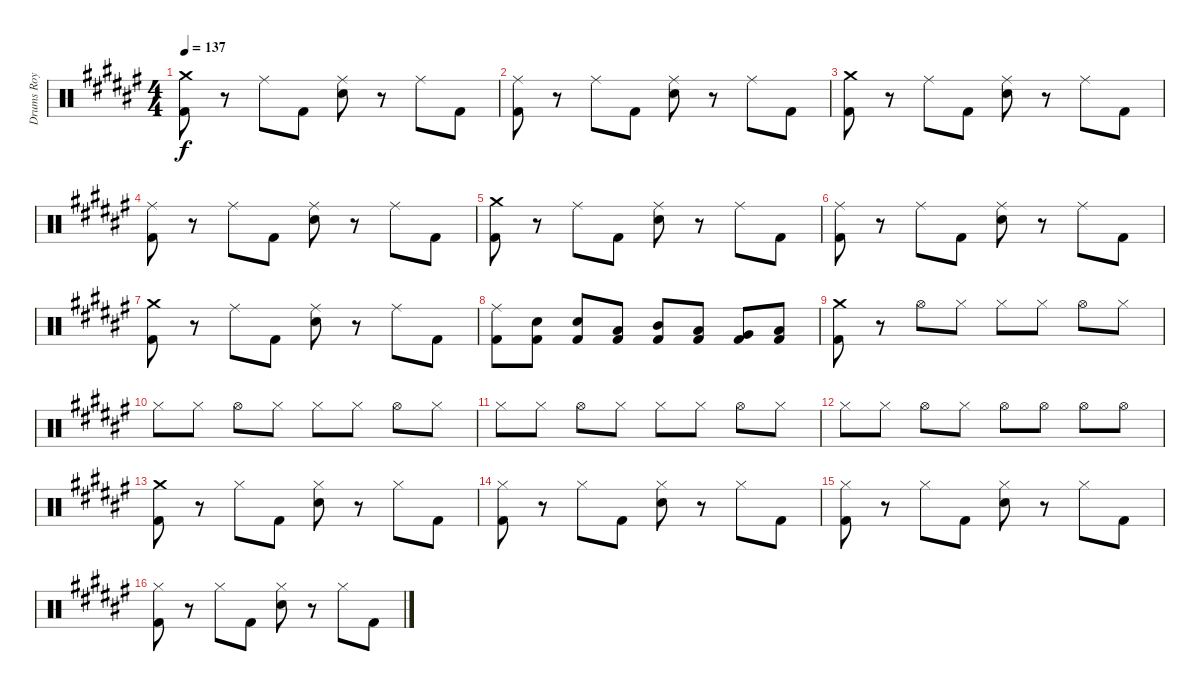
\track ("Drums Roy mayorga" "Drums Roy ") {instrument percussion}
\staff {score}
\articulation defaults
\ts (4 4)
\tempo 137
\clef neutral
\ks d#minor
("Crash medium (hit)" "Kick (hit) 2").8{dy f} r.8 "Ride (middle)".8 "Kick (hit) 2".8 ("Ride (middle)" "Electric Snare (hit)").8 r.8 "Ride (middle)".8 "Kick (hit) 2".8 |
("Ride (middle)" "Kick (hit) 2").8 r.8 "Ride (middle)".8 "Kick (hit) 2".8 ("Ride (middle)" "Electric Snare (hit)").8 r.8 "Ride (middle)".8 "Kick (hit) 2".8 |
("Crash medium (hit)" "Kick (hit) 2").8 r.8 "Ride (middle)".8 "Kick (hit) 2".8 ("Ride (middle)" "Electric Snare (hit)").8 r.8 "Ride (middle)".8 "Kick (hit) 2".8 |
("Ride (middle)" "Kick (hit) 2").8 r.8 "Ride (middle)".8 "Kick (hit) 2".8 ("Ride (middle)" "Electric Snare (hit)").8 r.8 "Ride (middle)".8 "Kick (hit) 2".8 |
("Crash medium (hit)" "Kick (hit) 2").8 r.8 "Ride (middle)".8 "Kick (hit) 2".8 ("Ride (middle)" "Electric Snare (hit)").8 r.8 "Ride (middle)".8 "Kick (hit) 2".8 |
("Ride (middle)" "Kick (hit) 2").8 r.8 "Ride (middle)".8 "Kick (hit) 2".8 ("Ride (middle)" "Electric Snare (hit)").8 r.8 "Ride (middle)".8 "Kick (hit) 2".8 |
("Crash medium (hit)" "Kick (hit) 2").8 r.8 "Ride (middle)".8 "Kick (hit) 2".8 ("Ride (middle)" "Electric Snare (hit)").8 r.8 "Ride (middle)".8 "Kick (hit) 2".8 |
("Ride (middle)" "Kick (hit) 2").8 ("Electric Snare (hit)" "Kick (hit) 2").8 ("Electric Snare (hit)" "Kick (hit) 2").8 ("Low Floor Tom (hit)" "Kick (hit) 2").8 ("Mid Tom (hit)" "Kick (hit) 2").8 ("Low Tom (hit)" "Kick (hit) 2").8 ("Very Low Tom (hit)" "Kick (hit) 2").8 ("Low Floor Tom (hit)" "Kick (hit) 2").8 |
("Crash medium (hit)" "Kick (hit) 2").8 r.8 "Hi-Hat (open)".8 "Hi-Hat (closed)".8 "Hi-Hat (closed)".8 "Hi-Hat (closed)".8 "Hi-Hat (open)".8 "Hi-Hat (closed)".8 |
"Hi-Hat (closed)".8 "Hi-Hat (closed)".8 "Hi-Hat (open)".8 "Hi-Hat (closed)".8 "Hi-Hat (closed)".8 "Hi-Hat (closed)".8 "Hi-Hat (open)".8 "Hi-Hat (closed)".8 |
"Hi-Hat (closed)".8 "Hi-Hat (closed)".8 "Hi-Hat (open)".8 "Hi-Hat (closed)".8 "Hi-Hat (closed)".8 "Hi-Hat (closed)".8 "Hi-Hat (open)".8 "Hi-Hat (closed)".8 |
"Hi-Hat (closed)".8 "Hi-Hat (closed)".8 "Hi-Hat (open)".8 "Hi-Hat (closed)".8 "Hi-Hat (open)".8 "Hi-Hat (open)".8 "Hi-Hat (open)".8 "Hi-Hat (open)".8 |
("Crash medium (hit)" "Kick (hit) 2").8 r.8 "Hi-Hat (closed)".8 "Kick (hit) 2".8 ("Hi-Hat (closed)" "Electric Snare (hit)").8 r.8 "Hi-Hat (closed)".8 "Kick (hit) 2".8 |
("Hi-Hat (closed)" "Kick (hit) 2").8 r.8 "Hi-Hat (closed)".8 "Kick (hit) 2".8 ("Hi-Hat (closed)" "Electric Snare (hit)").8 r.8 "Hi-Hat (closed)".8 "Kick (hit) 2".8 |
("Hi-Hat (closed)" "Kick (hit) 2").8 r.8 "Hi-Hat (closed)".8 "Kick (hit) 2".8 ("Hi-Hat (closed)" "Electric Snare (hit)").8 r.8 "Hi-Hat (closed)".8 "Kick (hit) 2".8 |
("Hi-Hat (closed)" "Kick (hit) 2").8 r.8 "Hi-Hat (closed)".8 "Kick (hit) 2".8 ("Hi-Hat (closed)" "Electric Snare (hit)").8 r.8 "Hi-Hat (closed)".8 "Kick (hit) 2".8
